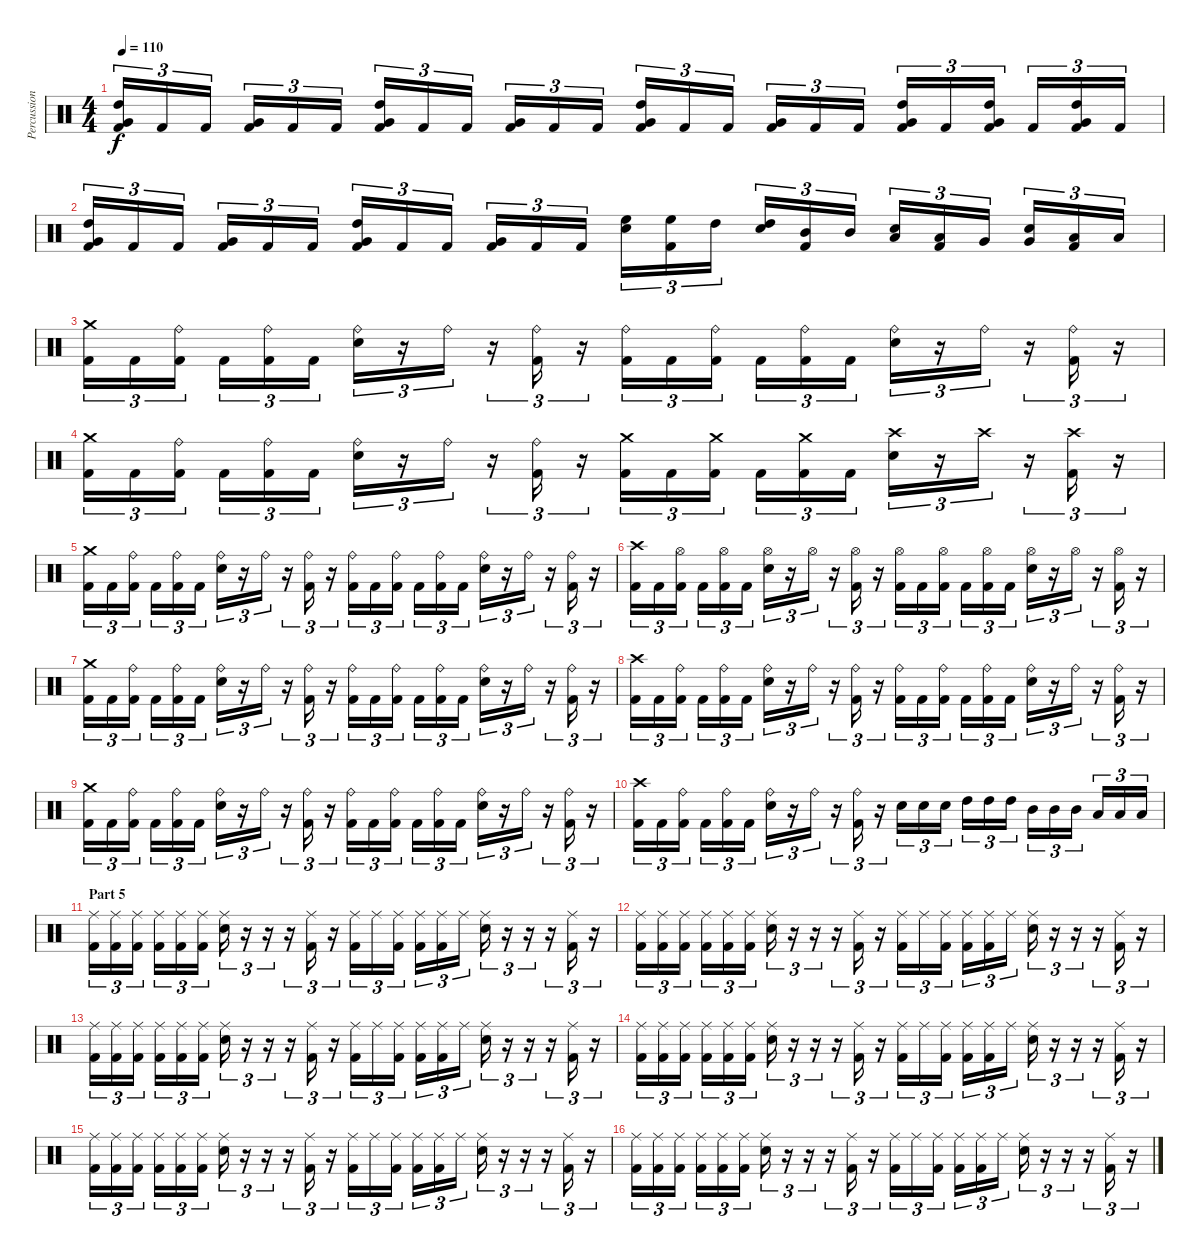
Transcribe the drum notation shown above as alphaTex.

\track ("Percussion" "Percussion") {instrument percussion}
\staff {score}
\articulation defaults
\ts (4 4)
\tempo 110
\clef neutral
\ks c
("High Tom (hit)" "Very Low Tom (hit)" "Kick (hit) 2").16{tu (3 2) dy f} "Kick (hit) 2".16{tu (3 2)} "Kick (hit) 2".16{tu (3 2)} ("Very Low Tom (hit)" "Kick (hit) 2").16{tu (3 2)} "Kick (hit) 2".16{tu (3 2)} "Kick (hit) 2".16{tu (3 2)} ("High Tom (hit)" "Very Low Tom (hit)" "Kick (hit) 2").16{tu (3 2)} "Kick (hit) 2".16{tu (3 2)} "Kick (hit) 2".16{tu (3 2)} ("Very Low Tom (hit)" "Kick (hit) 2").16{tu (3 2)} "Kick (hit) 2".16{tu (3 2)} "Kick (hit) 2".16{tu (3 2)} ("High Tom (hit)" "Very Low Tom (hit)" "Kick (hit) 2").16{tu (3 2)} "Kick (hit) 2".16{tu (3 2)} "Kick (hit) 2".16{tu (3 2)} ("Very Low Tom (hit)" "Kick (hit) 2").16{tu (3 2)} "Kick (hit) 2".16{tu (3 2)} "Kick (hit) 2".16{tu (3 2)} ("High Tom (hit)" "Very Low Tom (hit)" "Kick (hit) 2").16{tu (3 2)} "Kick (hit) 2".16{tu (3 2)} ("High Tom (hit)" "Very Low Tom (hit)" "Kick (hit) 2").16{tu (3 2)} "Kick (hit) 2".16{tu (3 2)} ("High Tom (hit)" "Very Low Tom (hit)" "Kick (hit) 2").16{tu (3 2)} "Kick (hit) 2".16{tu (3 2)} |
("High Tom (hit)" "Very Low Tom (hit)" "Kick (hit) 2").16{tu (3 2)} "Kick (hit) 2".16{tu (3 2)} "Kick (hit) 2".16{tu (3 2)} ("Very Low Tom (hit)" "Kick (hit) 2").16{tu (3 2)} "Kick (hit) 2".16{tu (3 2)} "Kick (hit) 2".16{tu (3 2)} ("High Tom (hit)" "Very Low Tom (hit)" "Kick (hit) 2").16{tu (3 2)} "Kick (hit) 2".16{tu (3 2)} "Kick (hit) 2".16{tu (3 2)} ("Very Low Tom (hit)" "Kick (hit) 2").16{tu (3 2)} "Kick (hit) 2".16{tu (3 2)} "Kick (hit) 2".16{tu (3 2)} ("Electric Snare (hit)" "High Floor Tom (hit)").16{tu (3 2)} ("High Floor Tom (hit)" "Kick (hit) 2").16{tu (3 2)} "High Tom (hit)".16{tu (3 2)} ("Electric Snare (hit)" "High Tom (hit)").16{tu (3 2)} ("Mid Tom (hit)" "Kick (hit) 2").16{tu (3 2)} "Mid Tom (hit)".16{tu (3 2)} ("Electric Snare (hit)" "Low Tom (hit)").16{tu (3 2)} ("Low Tom (hit)" "Kick (hit) 2").16{tu (3 2)} "Very Low Tom (hit)".16{tu (3 2)} ("Electric Snare (hit)" "Very Low Tom (hit)").16{tu (3 2)} ("Low Floor Tom (hit)" "Kick (hit) 2").16{tu (3 2)} "Low Floor Tom (hit)".16{tu (3 2)} |
("Crash medium (hit)" "Kick (hit) 2").16{tu (3 2)} "Kick (hit) 2".16{tu (3 2)} ("Ride (bell)" "Kick (hit) 2").16{tu (3 2)} "Kick (hit) 2".16{tu (3 2)} ("Ride (bell)" "Kick (hit) 2").16{tu (3 2)} "Kick (hit) 2".16{tu (3 2)} ("Ride (bell)" "Electric Snare (hit)").16{tu (3 2)} r.16{tu (3 2)} "Ride (bell)".16{tu (3 2)} r.16{tu (3 2)} ("Ride (bell)" "Kick (hit) 2").16{tu (3 2)} r.16{tu (3 2)} ("Ride (bell)" "Kick (hit) 2").16{tu (3 2)} "Kick (hit) 2".16{tu (3 2)} ("Ride (bell)" "Kick (hit) 2").16{tu (3 2)} "Kick (hit) 2".16{tu (3 2)} ("Ride (bell)" "Kick (hit) 2").16{tu (3 2)} "Kick (hit) 2".16{tu (3 2)} ("Ride (bell)" "Electric Snare (hit)").16{tu (3 2)} r.16{tu (3 2)} "Ride (bell)".16{tu (3 2)} r.16{tu (3 2)} ("Ride (bell)" "Kick (hit) 2").16{tu (3 2)} r.16{tu (3 2)} |
("Crash medium (hit)" "Kick (hit) 2").16{tu (3 2)} "Kick (hit) 2".16{tu (3 2)} ("Ride (bell)" "Kick (hit) 2").16{tu (3 2)} "Kick (hit) 2".16{tu (3 2)} ("Ride (bell)" "Kick (hit) 2").16{tu (3 2)} "Kick (hit) 2".16{tu (3 2)} ("Ride (bell)" "Electric Snare (hit)").16{tu (3 2)} r.16{tu (3 2)} "Ride (bell)".16{tu (3 2)} r.16{tu (3 2)} ("Ride (bell)" "Kick (hit) 2").16{tu (3 2)} r.16{tu (3 2)} ("Crash medium (hit)" "Kick (hit) 2").16{tu (3 2)} "Kick (hit) 2".16{tu (3 2)} ("Crash medium (hit)" "Kick (hit) 2").16{tu (3 2)} "Kick (hit) 2".16{tu (3 2)} ("Crash medium (hit)" "Kick (hit) 2").16{tu (3 2)} "Kick (hit) 2".16{tu (3 2)} ("Crash high (hit)" "Electric Snare (hit)").16{tu (3 2)} r.16{tu (3 2)} "Crash high (hit)".16{tu (3 2)} r.16{tu (3 2)} ("Crash high (hit)" "Kick (hit) 2").16{tu (3 2)} r.16{tu (3 2)} |
("Crash medium (hit)" "Kick (hit) 2").16{tu (3 2)} "Kick (hit) 2".16{tu (3 2)} ("Ride (bell)" "Kick (hit) 2").16{tu (3 2)} "Kick (hit) 2".16{tu (3 2)} ("Ride (bell)" "Kick (hit) 2").16{tu (3 2)} "Kick (hit) 2".16{tu (3 2)} ("Ride (bell)" "Electric Snare (hit)").16{tu (3 2)} r.16{tu (3 2)} "Ride (bell)".16{tu (3 2)} r.16{tu (3 2)} ("Ride (bell)" "Kick (hit) 2").16{tu (3 2)} r.16{tu (3 2)} ("Ride (bell)" "Kick (hit) 2").16{tu (3 2)} "Kick (hit) 2".16{tu (3 2)} ("Ride (bell)" "Kick (hit) 2").16{tu (3 2)} "Kick (hit) 2".16{tu (3 2)} ("Ride (bell)" "Kick (hit) 2").16{tu (3 2)} "Kick (hit) 2".16{tu (3 2)} ("Ride (bell)" "Electric Snare (hit)").16{tu (3 2)} r.16{tu (3 2)} "Ride (bell)".16{tu (3 2)} r.16{tu (3 2)} ("Ride (bell)" "Kick (hit) 2").16{tu (3 2)} r.16{tu (3 2)} |
("Crash high (hit)" "Kick (hit) 2").16{tu (3 2)} "Kick (hit) 2".16{tu (3 2)} ("Hi-Hat (open)" "Kick (hit) 2").16{tu (3 2)} "Kick (hit) 2".16{tu (3 2)} ("Hi-Hat (open)" "Kick (hit) 2").16{tu (3 2)} "Kick (hit) 2".16{tu (3 2)} ("Hi-Hat (open)" "Electric Snare (hit)").16{tu (3 2)} r.16{tu (3 2)} "Hi-Hat (open)".16{tu (3 2)} r.16{tu (3 2)} ("Hi-Hat (open)" "Kick (hit) 2").16{tu (3 2)} r.16{tu (3 2)} ("Hi-Hat (open)" "Kick (hit) 2").16{tu (3 2)} "Kick (hit) 2".16{tu (3 2)} ("Hi-Hat (open)" "Kick (hit) 2").16{tu (3 2)} "Kick (hit) 2".16{tu (3 2)} ("Hi-Hat (open)" "Kick (hit) 2").16{tu (3 2)} "Kick (hit) 2".16{tu (3 2)} ("Hi-Hat (open)" "Electric Snare (hit)").16{tu (3 2)} r.16{tu (3 2)} "Hi-Hat (open)".16{tu (3 2)} r.16{tu (3 2)} ("Hi-Hat (open)" "Kick (hit) 2").16{tu (3 2)} r.16{tu (3 2)} |
("Crash medium (hit)" "Kick (hit) 2").16{tu (3 2)} "Kick (hit) 2".16{tu (3 2)} ("Ride (bell)" "Kick (hit) 2").16{tu (3 2)} "Kick (hit) 2".16{tu (3 2)} ("Ride (bell)" "Kick (hit) 2").16{tu (3 2)} "Kick (hit) 2".16{tu (3 2)} ("Ride (bell)" "Electric Snare (hit)").16{tu (3 2)} r.16{tu (3 2)} "Ride (bell)".16{tu (3 2)} r.16{tu (3 2)} ("Ride (bell)" "Kick (hit) 2").16{tu (3 2)} r.16{tu (3 2)} ("Ride (bell)" "Kick (hit) 2").16{tu (3 2)} "Kick (hit) 2".16{tu (3 2)} ("Ride (bell)" "Kick (hit) 2").16{tu (3 2)} "Kick (hit) 2".16{tu (3 2)} ("Ride (bell)" "Kick (hit) 2").16{tu (3 2)} "Kick (hit) 2".16{tu (3 2)} ("Ride (bell)" "Electric Snare (hit)").16{tu (3 2)} r.16{tu (3 2)} "Ride (bell)".16{tu (3 2)} r.16{tu (3 2)} ("Ride (bell)" "Kick (hit) 2").16{tu (3 2)} r.16{tu (3 2)} |
("Crash high (hit)" "Kick (hit) 2").16{tu (3 2)} "Kick (hit) 2".16{tu (3 2)} ("Ride (bell)" "Kick (hit) 2").16{tu (3 2)} "Kick (hit) 2".16{tu (3 2)} ("Ride (bell)" "Kick (hit) 2").16{tu (3 2)} "Kick (hit) 2".16{tu (3 2)} ("Ride (bell)" "Electric Snare (hit)").16{tu (3 2)} r.16{tu (3 2)} "Ride (bell)".16{tu (3 2)} r.16{tu (3 2)} ("Ride (bell)" "Kick (hit) 2").16{tu (3 2)} r.16{tu (3 2)} ("Ride (bell)" "Kick (hit) 2").16{tu (3 2)} "Kick (hit) 2".16{tu (3 2)} ("Ride (bell)" "Kick (hit) 2").16{tu (3 2)} "Kick (hit) 2".16{tu (3 2)} ("Ride (bell)" "Kick (hit) 2").16{tu (3 2)} "Kick (hit) 2".16{tu (3 2)} ("Ride (bell)" "Electric Snare (hit)").16{tu (3 2)} r.16{tu (3 2)} "Ride (bell)".16{tu (3 2)} r.16{tu (3 2)} ("Ride (bell)" "Kick (hit) 2").16{tu (3 2)} r.16{tu (3 2)} |
("Crash medium (hit)" "Kick (hit) 2").16{tu (3 2)} "Kick (hit) 2".16{tu (3 2)} ("Ride (bell)" "Kick (hit) 2").16{tu (3 2)} "Kick (hit) 2".16{tu (3 2)} ("Ride (bell)" "Kick (hit) 2").16{tu (3 2)} "Kick (hit) 2".16{tu (3 2)} ("Ride (bell)" "Electric Snare (hit)").16{tu (3 2)} r.16{tu (3 2)} "Ride (bell)".16{tu (3 2)} r.16{tu (3 2)} ("Ride (bell)" "Kick (hit) 2").16{tu (3 2)} r.16{tu (3 2)} ("Ride (bell)" "Kick (hit) 2").16{tu (3 2)} "Kick (hit) 2".16{tu (3 2)} ("Ride (bell)" "Kick (hit) 2").16{tu (3 2)} "Kick (hit) 2".16{tu (3 2)} ("Ride (bell)" "Kick (hit) 2").16{tu (3 2)} "Kick (hit) 2".16{tu (3 2)} ("Ride (bell)" "Electric Snare (hit)").16{tu (3 2)} r.16{tu (3 2)} "Ride (bell)".16{tu (3 2)} r.16{tu (3 2)} ("Ride (bell)" "Kick (hit) 2").16{tu (3 2)} r.16{tu (3 2)} |
("Crash high (hit)" "Kick (hit) 2").16{tu (3 2)} "Kick (hit) 2".16{tu (3 2)} ("Ride (bell)" "Kick (hit) 2").16{tu (3 2)} "Kick (hit) 2".16{tu (3 2)} ("Ride (bell)" "Kick (hit) 2").16{tu (3 2)} "Kick (hit) 2".16{tu (3 2)} ("Ride (bell)" "Electric Snare (hit)").16{tu (3 2)} r.16{tu (3 2)} "Ride (bell)".16{tu (3 2)} r.16{tu (3 2)} ("Ride (bell)" "Kick (hit) 2").16{tu (3 2)} r.16{tu (3 2)} "Electric Snare (hit)".16{tu (3 2)} "Electric Snare (hit)".16{tu (3 2)} "Electric Snare (hit)".16{tu (3 2)} "High Tom (hit)".16{tu (3 2)} "High Tom (hit)".16{tu (3 2)} "High Tom (hit)".16{tu (3 2)} "Mid Tom (hit)".16{tu (3 2)} "Mid Tom (hit)".16{tu (3 2)} "Mid Tom (hit)".16{tu (3 2)} "Low Tom (hit)".16{tu (3 2)} "Low Tom (hit)".16{tu (3 2)} "Low Tom (hit)".16{tu (3 2)} |
\section ("" "Part 5")
("Ride (middle)" "Kick (hit) 2").16{tu (3 2)} ("Ride (middle)" "Kick (hit) 2").16{tu (3 2)} ("Ride (middle)" "Kick (hit) 2").16{tu (3 2)} ("Ride (middle)" "Kick (hit) 2").16{tu (3 2)} ("Ride (middle)" "Kick (hit) 2").16{tu (3 2)} ("Ride (middle)" "Kick (hit) 2").16{tu (3 2)} ("Ride (middle)" "Electric Snare (hit)").16{tu (3 2)} r.16{tu (3 2)} r.16{tu (3 2)} r.16{tu (3 2)} ("Ride (middle)" "Kick (hit) 2").16{tu (3 2)} r.16{tu (3 2)} ("Ride (middle)" "Kick (hit) 2").16{tu (3 2)} "Ride (middle)".16{tu (3 2)} ("Ride (middle)" "Kick (hit) 2").16{tu (3 2)} ("Ride (middle)" "Kick (hit) 2").16{tu (3 2)} ("Ride (middle)" "Kick (hit) 2").16{tu (3 2)} "Ride (middle)".16{tu (3 2)} ("Ride (middle)" "Electric Snare (hit)").16{tu (3 2)} r.16{tu (3 2)} r.16{tu (3 2)} r.16{tu (3 2)} ("Ride (middle)" "Kick (hit) 2").16{tu (3 2)} r.16{tu (3 2)} |
("Ride (middle)" "Kick (hit) 2").16{tu (3 2)} ("Ride (middle)" "Kick (hit) 2").16{tu (3 2)} ("Ride (middle)" "Kick (hit) 2").16{tu (3 2)} ("Ride (middle)" "Kick (hit) 2").16{tu (3 2)} ("Ride (middle)" "Kick (hit) 2").16{tu (3 2)} ("Ride (middle)" "Kick (hit) 2").16{tu (3 2)} ("Ride (middle)" "Electric Snare (hit)").16{tu (3 2)} r.16{tu (3 2)} r.16{tu (3 2)} r.16{tu (3 2)} ("Ride (middle)" "Kick (hit) 2").16{tu (3 2)} r.16{tu (3 2)} ("Ride (middle)" "Kick (hit) 2").16{tu (3 2)} "Ride (middle)".16{tu (3 2)} ("Ride (middle)" "Kick (hit) 2").16{tu (3 2)} ("Ride (middle)" "Kick (hit) 2").16{tu (3 2)} ("Ride (middle)" "Kick (hit) 2").16{tu (3 2)} "Ride (middle)".16{tu (3 2)} ("Ride (middle)" "Electric Snare (hit)").16{tu (3 2)} r.16{tu (3 2)} r.16{tu (3 2)} r.16{tu (3 2)} ("Ride (middle)" "Kick (hit) 2").16{tu (3 2)} r.16{tu (3 2)} |
("Ride (middle)" "Kick (hit) 2").16{tu (3 2)} ("Ride (middle)" "Kick (hit) 2").16{tu (3 2)} ("Ride (middle)" "Kick (hit) 2").16{tu (3 2)} ("Ride (middle)" "Kick (hit) 2").16{tu (3 2)} ("Ride (middle)" "Kick (hit) 2").16{tu (3 2)} ("Ride (middle)" "Kick (hit) 2").16{tu (3 2)} ("Ride (middle)" "Electric Snare (hit)").16{tu (3 2)} r.16{tu (3 2)} r.16{tu (3 2)} r.16{tu (3 2)} ("Ride (middle)" "Kick (hit) 2").16{tu (3 2)} r.16{tu (3 2)} ("Ride (middle)" "Kick (hit) 2").16{tu (3 2)} "Ride (middle)".16{tu (3 2)} ("Ride (middle)" "Kick (hit) 2").16{tu (3 2)} ("Ride (middle)" "Kick (hit) 2").16{tu (3 2)} ("Ride (middle)" "Kick (hit) 2").16{tu (3 2)} "Ride (middle)".16{tu (3 2)} ("Ride (middle)" "Electric Snare (hit)").16{tu (3 2)} r.16{tu (3 2)} r.16{tu (3 2)} r.16{tu (3 2)} ("Ride (middle)" "Kick (hit) 2").16{tu (3 2)} r.16{tu (3 2)} |
("Ride (middle)" "Kick (hit) 2").16{tu (3 2)} ("Ride (middle)" "Kick (hit) 2").16{tu (3 2)} ("Ride (middle)" "Kick (hit) 2").16{tu (3 2)} ("Ride (middle)" "Kick (hit) 2").16{tu (3 2)} ("Ride (middle)" "Kick (hit) 2").16{tu (3 2)} ("Ride (middle)" "Kick (hit) 2").16{tu (3 2)} ("Ride (middle)" "Electric Snare (hit)").16{tu (3 2)} r.16{tu (3 2)} r.16{tu (3 2)} r.16{tu (3 2)} ("Ride (middle)" "Kick (hit) 2").16{tu (3 2)} r.16{tu (3 2)} ("Ride (middle)" "Kick (hit) 2").16{tu (3 2)} "Ride (middle)".16{tu (3 2)} ("Ride (middle)" "Kick (hit) 2").16{tu (3 2)} ("Ride (middle)" "Kick (hit) 2").16{tu (3 2)} ("Ride (middle)" "Kick (hit) 2").16{tu (3 2)} "Ride (middle)".16{tu (3 2)} ("Ride (middle)" "Electric Snare (hit)").16{tu (3 2)} r.16{tu (3 2)} r.16{tu (3 2)} r.16{tu (3 2)} ("Ride (middle)" "Kick (hit) 2").16{tu (3 2)} r.16{tu (3 2)} |
("Ride (middle)" "Kick (hit) 2").16{tu (3 2)} ("Ride (middle)" "Kick (hit) 2").16{tu (3 2)} ("Ride (middle)" "Kick (hit) 2").16{tu (3 2)} ("Ride (middle)" "Kick (hit) 2").16{tu (3 2)} ("Ride (middle)" "Kick (hit) 2").16{tu (3 2)} ("Ride (middle)" "Kick (hit) 2").16{tu (3 2)} ("Ride (middle)" "Electric Snare (hit)").16{tu (3 2)} r.16{tu (3 2)} r.16{tu (3 2)} r.16{tu (3 2)} ("Ride (middle)" "Kick (hit) 2").16{tu (3 2)} r.16{tu (3 2)} ("Ride (middle)" "Kick (hit) 2").16{tu (3 2)} "Ride (middle)".16{tu (3 2)} ("Ride (middle)" "Kick (hit) 2").16{tu (3 2)} ("Ride (middle)" "Kick (hit) 2").16{tu (3 2)} ("Ride (middle)" "Kick (hit) 2").16{tu (3 2)} "Ride (middle)".16{tu (3 2)} ("Ride (middle)" "Electric Snare (hit)").16{tu (3 2)} r.16{tu (3 2)} r.16{tu (3 2)} r.16{tu (3 2)} ("Ride (middle)" "Kick (hit) 2").16{tu (3 2)} r.16{tu (3 2)} |
("Ride (middle)" "Kick (hit) 2").16{tu (3 2)} ("Ride (middle)" "Kick (hit) 2").16{tu (3 2)} ("Ride (middle)" "Kick (hit) 2").16{tu (3 2)} ("Ride (middle)" "Kick (hit) 2").16{tu (3 2)} ("Ride (middle)" "Kick (hit) 2").16{tu (3 2)} ("Ride (middle)" "Kick (hit) 2").16{tu (3 2)} ("Ride (middle)" "Electric Snare (hit)").16{tu (3 2)} r.16{tu (3 2)} r.16{tu (3 2)} r.16{tu (3 2)} ("Ride (middle)" "Kick (hit) 2").16{tu (3 2)} r.16{tu (3 2)} ("Ride (middle)" "Kick (hit) 2").16{tu (3 2)} "Ride (middle)".16{tu (3 2)} ("Ride (middle)" "Kick (hit) 2").16{tu (3 2)} ("Ride (middle)" "Kick (hit) 2").16{tu (3 2)} ("Ride (middle)" "Kick (hit) 2").16{tu (3 2)} "Ride (middle)".16{tu (3 2)} ("Ride (middle)" "Electric Snare (hit)").16{tu (3 2)} r.16{tu (3 2)} r.16{tu (3 2)} r.16{tu (3 2)} ("Ride (middle)" "Kick (hit) 2").16{tu (3 2)} r.16{tu (3 2)}
